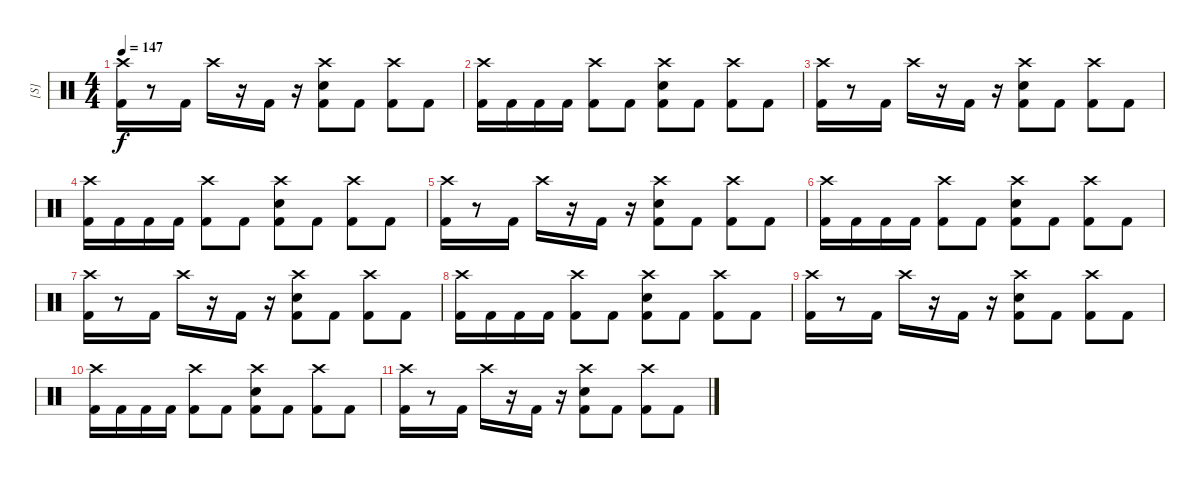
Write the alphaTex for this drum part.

\track ("[S]" "[S]") {instrument percussion}
\staff {score}
\articulation defaults
\ts (4 4)
\tempo 147
\clef neutral
\ks c
("Crash high (hit)" "Kick (hit) 2").16{dy f} r.8 "Kick (hit) 2".16 "Crash high (hit)".16 r.16 "Kick (hit) 2".16 r.16 ("Crash high (hit)" "Snare (hit) 2" "Kick (hit) 2").8 "Kick (hit) 2".8 ("Crash high (hit)" "Kick (hit) 2").8 "Kick (hit) 2".8 |
("Crash high (hit)" "Kick (hit) 2").16 "Kick (hit) 2".16 "Kick (hit) 2".16 "Kick (hit) 2".16 ("Crash high (hit)" "Kick (hit) 2").8 "Kick (hit) 2".8 ("Crash high (hit)" "Snare (hit) 2" "Kick (hit) 2").8 "Kick (hit) 2".8 ("Crash high (hit)" "Kick (hit) 2").8 "Kick (hit) 2".8 |
("Crash high (hit)" "Kick (hit) 2").16 r.8 "Kick (hit) 2".16 "Crash high (hit)".16 r.16 "Kick (hit) 2".16 r.16 ("Crash high (hit)" "Snare (hit) 2" "Kick (hit) 2").8 "Kick (hit) 2".8 ("Crash high (hit)" "Kick (hit) 2").8 "Kick (hit) 2".8 |
("Crash high (hit)" "Kick (hit) 2").16{volume 8} "Kick (hit) 2".16 "Kick (hit) 2".16 "Kick (hit) 2".16 ("Crash high (hit)" "Kick (hit) 2").8 "Kick (hit) 2".8 ("Crash high (hit)" "Snare (hit) 2" "Kick (hit) 2").8 "Kick (hit) 2".8 ("Crash high (hit)" "Kick (hit) 2").8 "Kick (hit) 2".8 |
("Crash high (hit)" "Kick (hit) 2").16 r.8 "Kick (hit) 2".16 "Crash high (hit)".16 r.16 "Kick (hit) 2".16 r.16 ("Crash high (hit)" "Snare (hit) 2" "Kick (hit) 2").8 "Kick (hit) 2".8 ("Crash high (hit)" "Kick (hit) 2").8 "Kick (hit) 2".8 |
("Crash high (hit)" "Kick (hit) 2").16 "Kick (hit) 2".16 "Kick (hit) 2".16 "Kick (hit) 2".16 ("Crash high (hit)" "Kick (hit) 2").8 "Kick (hit) 2".8 ("Crash high (hit)" "Snare (hit) 2" "Kick (hit) 2").8 "Kick (hit) 2".8 ("Crash high (hit)" "Kick (hit) 2").8 "Kick (hit) 2".8 |
("Crash high (hit)" "Kick (hit) 2").16 r.8 "Kick (hit) 2".16 "Crash high (hit)".16 r.16 "Kick (hit) 2".16 r.16 ("Crash high (hit)" "Snare (hit) 2" "Kick (hit) 2").8 "Kick (hit) 2".8 ("Crash high (hit)" "Kick (hit) 2").8 "Kick (hit) 2".8 |
("Crash high (hit)" "Kick (hit) 2").16{volume 0} "Kick (hit) 2".16 "Kick (hit) 2".16 "Kick (hit) 2".16 ("Crash high (hit)" "Kick (hit) 2").8 "Kick (hit) 2".8 ("Crash high (hit)" "Snare (hit) 2" "Kick (hit) 2").8 "Kick (hit) 2".8 ("Crash high (hit)" "Kick (hit) 2").8 "Kick (hit) 2".8 |
("Crash high (hit)" "Kick (hit) 2").16 r.8 "Kick (hit) 2".16 "Crash high (hit)".16 r.16 "Kick (hit) 2".16 r.16 ("Crash high (hit)" "Snare (hit) 2" "Kick (hit) 2").8 "Kick (hit) 2".8 ("Crash high (hit)" "Kick (hit) 2").8 "Kick (hit) 2".8 |
("Crash high (hit)" "Kick (hit) 2").16 "Kick (hit) 2".16 "Kick (hit) 2".16 "Kick (hit) 2".16 ("Crash high (hit)" "Kick (hit) 2").8 "Kick (hit) 2".8 ("Crash high (hit)" "Snare (hit) 2" "Kick (hit) 2").8 "Kick (hit) 2".8 ("Crash high (hit)" "Kick (hit) 2").8 "Kick (hit) 2".8 |
("Crash high (hit)" "Kick (hit) 2").16 r.8 "Kick (hit) 2".16 "Crash high (hit)".16 r.16 "Kick (hit) 2".16 r.16 ("Crash high (hit)" "Snare (hit) 2" "Kick (hit) 2").8 "Kick (hit) 2".8 ("Crash high (hit)" "Kick (hit) 2").8 "Kick (hit) 2".8
